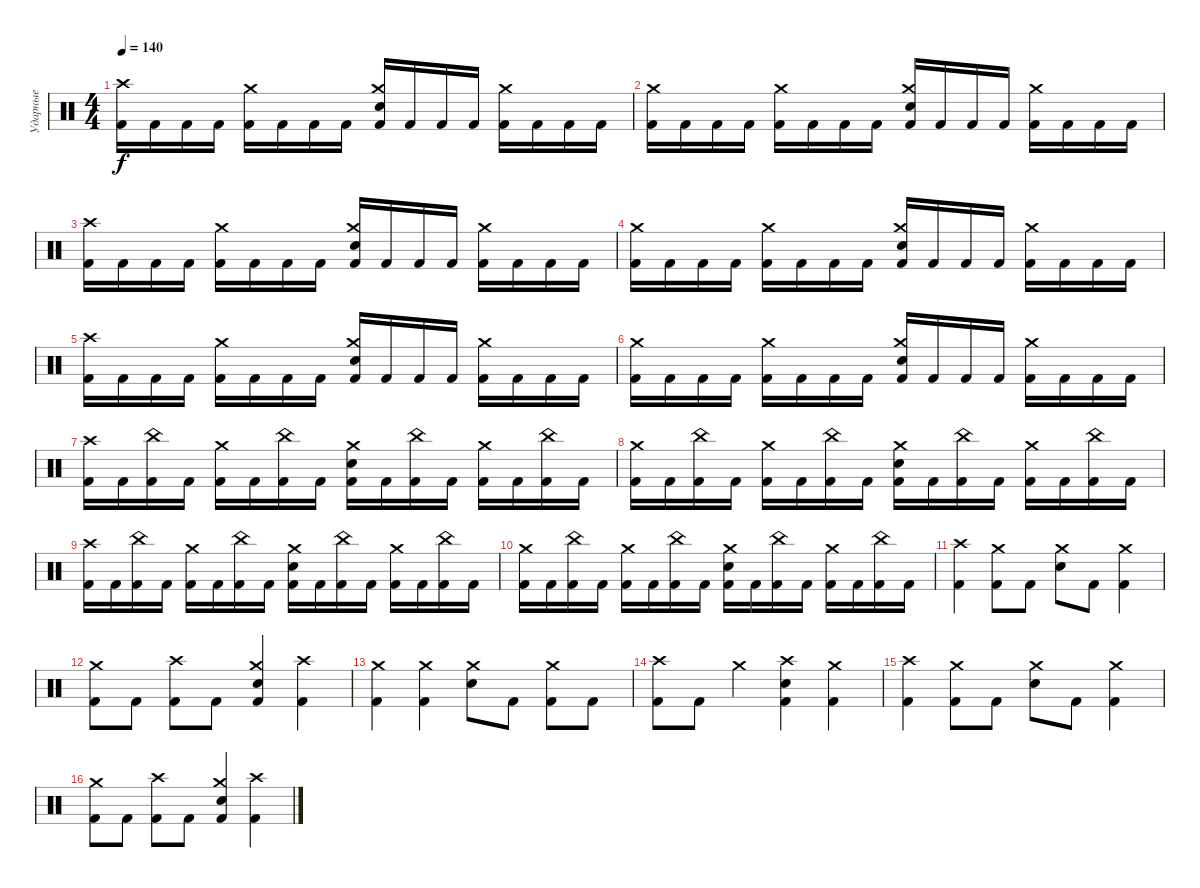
\track ("Ударные" "Ударные") {instrument percussion}
\staff {score}
\articulation defaults
\ts (4 4)
\tempo 140
\clef neutral
\ks c
("Crash high (hit)" "Kick (hit) 2").16{dy f} "Kick (hit) 2".16 "Kick (hit) 2".16 "Kick (hit) 2".16 ("Crash medium (hit)" "Kick (hit) 2").16 "Kick (hit) 2".16 "Kick (hit) 2".16 "Kick (hit) 2".16 ("Crash medium (hit)" "Electric Snare (hit)" "Kick (hit) 2").16 "Kick (hit) 2".16 "Kick (hit) 2".16 "Kick (hit) 2".16 ("Crash medium (hit)" "Kick (hit) 2").16 "Kick (hit) 2".16 "Kick (hit) 2".16 "Kick (hit) 2".16 |
("Crash medium (hit)" "Kick (hit) 2").16 "Kick (hit) 2".16 "Kick (hit) 2".16 "Kick (hit) 2".16 ("Crash medium (hit)" "Kick (hit) 2").16 "Kick (hit) 2".16 "Kick (hit) 2".16 "Kick (hit) 2".16 ("Crash medium (hit)" "Electric Snare (hit)" "Kick (hit) 2").16 "Kick (hit) 2".16 "Kick (hit) 2".16 "Kick (hit) 2".16 ("Crash medium (hit)" "Kick (hit) 2").16 "Kick (hit) 2".16 "Kick (hit) 2".16 "Kick (hit) 2".16 |
("Crash high (hit)" "Kick (hit) 2").16 "Kick (hit) 2".16 "Kick (hit) 2".16 "Kick (hit) 2".16 ("Crash medium (hit)" "Kick (hit) 2").16 "Kick (hit) 2".16 "Kick (hit) 2".16 "Kick (hit) 2".16 ("Crash medium (hit)" "Electric Snare (hit)" "Kick (hit) 2").16 "Kick (hit) 2".16 "Kick (hit) 2".16 "Kick (hit) 2".16 ("Crash medium (hit)" "Kick (hit) 2").16 "Kick (hit) 2".16 "Kick (hit) 2".16 "Kick (hit) 2".16 |
("Crash medium (hit)" "Kick (hit) 2").16 "Kick (hit) 2".16 "Kick (hit) 2".16 "Kick (hit) 2".16 ("Crash medium (hit)" "Kick (hit) 2").16 "Kick (hit) 2".16 "Kick (hit) 2".16 "Kick (hit) 2".16 ("Crash medium (hit)" "Electric Snare (hit)" "Kick (hit) 2").16 "Kick (hit) 2".16 "Kick (hit) 2".16 "Kick (hit) 2".16 ("Crash medium (hit)" "Kick (hit) 2").16 "Kick (hit) 2".16 "Kick (hit) 2".16 "Kick (hit) 2".16 |
("Crash high (hit)" "Kick (hit) 2").16 "Kick (hit) 2".16 "Kick (hit) 2".16 "Kick (hit) 2".16 ("Crash medium (hit)" "Kick (hit) 2").16 "Kick (hit) 2".16 "Kick (hit) 2".16 "Kick (hit) 2".16 ("Crash medium (hit)" "Electric Snare (hit)" "Kick (hit) 2").16 "Kick (hit) 2".16 "Kick (hit) 2".16 "Kick (hit) 2".16 ("Crash medium (hit)" "Kick (hit) 2").16 "Kick (hit) 2".16 "Kick (hit) 2".16 "Kick (hit) 2".16 |
("Crash medium (hit)" "Kick (hit) 2").16 "Kick (hit) 2".16 "Kick (hit) 2".16 "Kick (hit) 2".16 ("Crash medium (hit)" "Kick (hit) 2").16 "Kick (hit) 2".16 "Kick (hit) 2".16 "Kick (hit) 2".16 ("Crash medium (hit)" "Electric Snare (hit)" "Kick (hit) 2").16 "Kick (hit) 2".16 "Kick (hit) 2".16 "Kick (hit) 2".16 ("Crash medium (hit)" "Kick (hit) 2").16 "Kick (hit) 2".16 "Kick (hit) 2".16 "Kick (hit) 2".16 |
("Crash high (hit)" "Kick (hit) 2").16 "Kick (hit) 2".16 ("China (hit)" "Kick (hit) 2").16 "Kick (hit) 2".16 ("Crash medium (hit)" "Kick (hit) 2").16 "Kick (hit) 2".16 ("China (hit)" "Kick (hit) 2").16 "Kick (hit) 2".16 ("Crash medium (hit)" "Electric Snare (hit)" "Kick (hit) 2").16 "Kick (hit) 2".16 ("China (hit)" "Kick (hit) 2").16 "Kick (hit) 2".16 ("Crash medium (hit)" "Kick (hit) 2").16 "Kick (hit) 2".16 ("China (hit)" "Kick (hit) 2").16 "Kick (hit) 2".16 |
("Crash medium (hit)" "Kick (hit) 2").16 "Kick (hit) 2".16 ("China (hit)" "Kick (hit) 2").16 "Kick (hit) 2".16 ("Crash medium (hit)" "Kick (hit) 2").16 "Kick (hit) 2".16 ("China (hit)" "Kick (hit) 2").16 "Kick (hit) 2".16 ("Crash medium (hit)" "Electric Snare (hit)" "Kick (hit) 2").16 "Kick (hit) 2".16 ("China (hit)" "Kick (hit) 2").16 "Kick (hit) 2".16 ("Crash medium (hit)" "Kick (hit) 2").16 "Kick (hit) 2".16 ("China (hit)" "Kick (hit) 2").16 "Kick (hit) 2".16 |
("Crash high (hit)" "Kick (hit) 2").16 "Kick (hit) 2".16 ("China (hit)" "Kick (hit) 2").16 "Kick (hit) 2".16 ("Crash medium (hit)" "Kick (hit) 2").16 "Kick (hit) 2".16 ("China (hit)" "Kick (hit) 2").16 "Kick (hit) 2".16 ("Crash medium (hit)" "Electric Snare (hit)" "Kick (hit) 2").16 "Kick (hit) 2".16 ("China (hit)" "Kick (hit) 2").16 "Kick (hit) 2".16 ("Crash medium (hit)" "Kick (hit) 2").16 "Kick (hit) 2".16 ("China (hit)" "Kick (hit) 2").16 "Kick (hit) 2".16 |
("Crash medium (hit)" "Kick (hit) 2").16 "Kick (hit) 2".16 ("China (hit)" "Kick (hit) 2").16 "Kick (hit) 2".16 ("Crash medium (hit)" "Kick (hit) 2").16 "Kick (hit) 2".16 ("China (hit)" "Kick (hit) 2").16 "Kick (hit) 2".16 ("Crash medium (hit)" "Electric Snare (hit)" "Kick (hit) 2").16 "Kick (hit) 2".16 ("China (hit)" "Kick (hit) 2").16 "Kick (hit) 2".16 ("Crash medium (hit)" "Kick (hit) 2").16 "Kick (hit) 2".16 ("China (hit)" "Kick (hit) 2").16 "Kick (hit) 2".16 |
("Crash high (hit)" "Kick (hit) 2").4 ("Crash medium (hit)" "Kick (hit) 2").8 "Kick (hit) 2".8 ("Crash medium (hit)" "Electric Snare (hit)").8 "Kick (hit) 2".8 ("Crash medium (hit)" "Kick (hit) 2").4 |
("Crash medium (hit)" "Kick (hit) 2").8 "Kick (hit) 2".8 ("Crash high (hit)" "Kick (hit) 2").8 "Kick (hit) 2".8 ("Crash medium (hit)" "Electric Snare (hit)" "Kick (hit) 2").4 ("Crash high (hit)" "Kick (hit) 2").4 |
("Crash medium (hit)" "Kick (hit) 2").4 ("Crash medium (hit)" "Kick (hit) 2").4 ("Crash medium (hit)" "Electric Snare (hit)").8 "Kick (hit) 2".8 ("Crash medium (hit)" "Kick (hit) 2").8 "Kick (hit) 2".8 |
("Crash high (hit)" "Kick (hit) 2").8 "Kick (hit) 2".8 "Crash medium (hit)".4 ("Crash high (hit)" "Electric Snare (hit)" "Kick (hit) 2").4 ("Crash medium (hit)" "Kick (hit) 2").4 |
("Crash high (hit)" "Kick (hit) 2").4 ("Crash medium (hit)" "Kick (hit) 2").8 "Kick (hit) 2".8 ("Crash medium (hit)" "Electric Snare (hit)").8 "Kick (hit) 2".8 ("Crash medium (hit)" "Kick (hit) 2").4 |
("Crash medium (hit)" "Kick (hit) 2").8 "Kick (hit) 2".8 ("Crash high (hit)" "Kick (hit) 2").8 "Kick (hit) 2".8 ("Crash medium (hit)" "Electric Snare (hit)" "Kick (hit) 2").4 ("Crash high (hit)" "Kick (hit) 2").4
